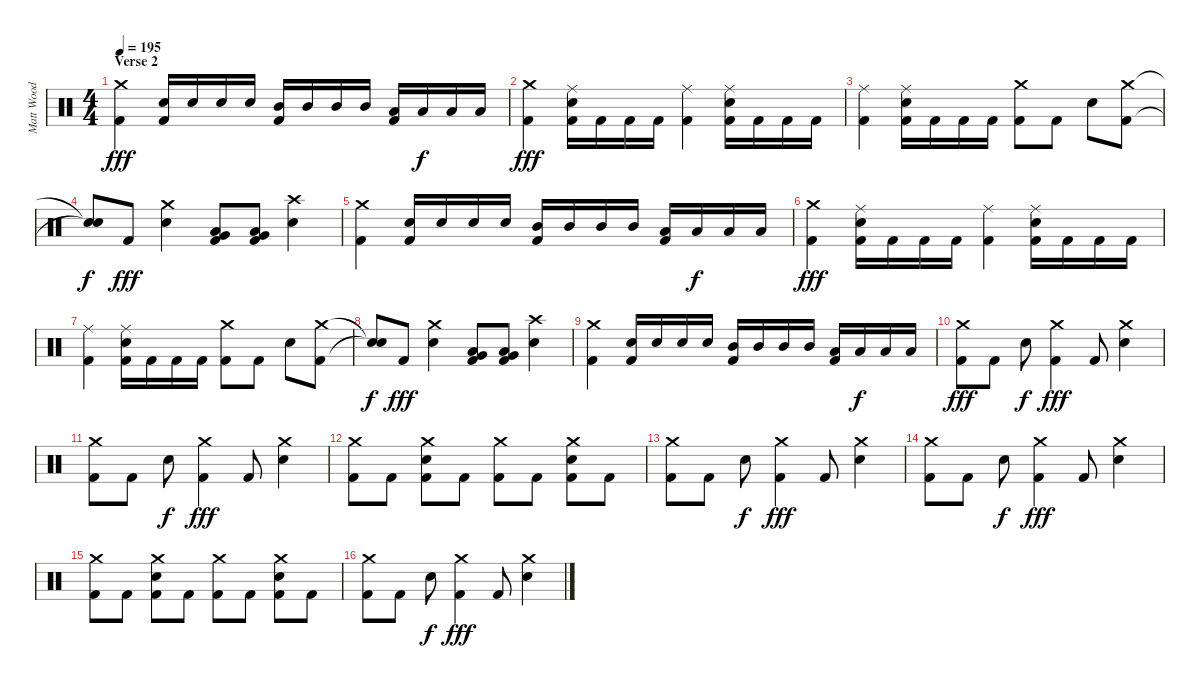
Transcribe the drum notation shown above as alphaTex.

\track ("Matt Wood" "Matt Wood") {instrument percussion}
\staff {score}
\articulation defaults
\ts (4 4)
\section ("" "Verse 2")
\tempo 195
\clef neutral
\ks c
("Crash medium (hit)" "Kick (hit) 2").4{dy fff} ("Snare (hit) 2" "Kick (hit) 2").16 "Snare (hit) 2".16 "Snare (hit) 2".16 "Snare (hit) 2".16 ("Mid Tom (hit)" "Kick (hit) 2").16 "Mid Tom (hit)".16 "Mid Tom (hit)".16 "Mid Tom (hit)".16 ("Low Tom (hit)" "Kick (hit) 2").16 "Low Tom (hit)".16{dy f} "Low Tom (hit)".16 "Low Tom (hit)".16 |
("Crash medium (hit)" "Kick (hit) 2").4{dy fff} ("Ride (middle)" "Snare (hit) 2" "Kick (hit) 2").16 "Kick (hit) 2".16 "Kick (hit) 2".16 "Kick (hit) 2".16 ("Ride (middle)" "Kick (hit) 2").4 ("Ride (middle)" "Snare (hit) 2" "Kick (hit) 2").16 "Kick (hit) 2".16 "Kick (hit) 2".16 "Kick (hit) 2".16 |
("Ride (middle)" "Kick (hit) 2").4 ("Ride (middle)" "Snare (hit) 2" "Kick (hit) 2").16 "Kick (hit) 2".16 "Kick (hit) 2".16 "Kick (hit) 2".16 ("Crash medium (hit)" "Kick (hit) 2").8 "Kick (hit) 2".8 "Snare (hit) 2".8 ("Crash medium (hit)" "Kick (hit) 2").8 |
("Snare (hit)"{t} "Snare (hit)"{t}).8{dy f} "Kick (hit) 2".8{dy fff} ("Crash medium (hit)" "Snare (hit) 2").4 ("Low Tom (hit)" "Very Low Tom (hit)" "Kick (hit) 2").8 ("Low Tom (hit)" "Very Low Tom (hit)" "Kick (hit) 2").8 ("Crash high (hit)" "Snare (hit) 2").4 |
("Crash medium (hit)" "Kick (hit) 2").4 ("Snare (hit) 2" "Kick (hit) 2").16 "Snare (hit) 2".16 "Snare (hit) 2".16 "Snare (hit) 2".16 ("Mid Tom (hit)" "Kick (hit) 2").16 "Mid Tom (hit)".16 "Mid Tom (hit)".16 "Mid Tom (hit)".16 ("Low Tom (hit)" "Kick (hit) 2").16 "Low Tom (hit)".16{dy f} "Low Tom (hit)".16 "Low Tom (hit)".16 |
("Crash medium (hit)" "Kick (hit) 2").4{dy fff} ("Ride (middle)" "Snare (hit) 2" "Kick (hit) 2").16 "Kick (hit) 2".16 "Kick (hit) 2".16 "Kick (hit) 2".16 ("Ride (middle)" "Kick (hit) 2").4 ("Ride (middle)" "Snare (hit) 2" "Kick (hit) 2").16 "Kick (hit) 2".16 "Kick (hit) 2".16 "Kick (hit) 2".16 |
("Ride (middle)" "Kick (hit) 2").4 ("Ride (middle)" "Snare (hit) 2" "Kick (hit) 2").16 "Kick (hit) 2".16 "Kick (hit) 2".16 "Kick (hit) 2".16 ("Crash medium (hit)" "Kick (hit) 2").8 "Kick (hit) 2".8 "Snare (hit) 2".8 ("Crash medium (hit)" "Kick (hit) 2").8 |
("Snare (hit)"{t} "Snare (hit)"{t}).8{dy f} "Kick (hit) 2".8{dy fff} ("Crash medium (hit)" "Snare (hit) 2").4 ("Low Tom (hit)" "Very Low Tom (hit)" "Kick (hit) 2").8 ("Low Tom (hit)" "Very Low Tom (hit)" "Kick (hit) 2").8 ("Crash high (hit)" "Snare (hit) 2").4 |
("Crash medium (hit)" "Kick (hit) 2").4 ("Snare (hit) 2" "Kick (hit) 2").16 "Snare (hit) 2".16 "Snare (hit) 2".16 "Snare (hit) 2".16 ("Mid Tom (hit)" "Kick (hit) 2").16 "Mid Tom (hit)".16 "Mid Tom (hit)".16 "Mid Tom (hit)".16 ("Low Tom (hit)" "Kick (hit) 2").16 "Low Tom (hit)".16{dy f} "Low Tom (hit)".16 "Low Tom (hit)".16 |
("Crash medium (hit)" "Kick (hit) 2").8{dy fff} "Kick (hit) 2".8 "Snare (hit) 2".8{dy f} ("Crash medium (hit)" "Kick (hit) 2").4{dy fff} "Kick (hit) 2".8 ("Crash medium (hit)" "Snare (hit) 2").4 |
("Crash medium (hit)" "Kick (hit) 2").8 "Kick (hit) 2".8 "Snare (hit) 2".8{dy f} ("Crash medium (hit)" "Kick (hit) 2").4{dy fff} "Kick (hit) 2".8 ("Crash medium (hit)" "Snare (hit) 2").4 |
("Crash medium (hit)" "Kick (hit) 2").8 "Kick (hit) 2".8 ("Crash medium (hit)" "Snare (hit) 2" "Kick (hit) 2").8 "Kick (hit) 2".8 ("Crash medium (hit)" "Kick (hit) 2").8 "Kick (hit) 2".8 ("Crash medium (hit)" "Snare (hit) 2" "Kick (hit) 2").8 "Kick (hit) 2".8 |
("Crash medium (hit)" "Kick (hit) 2").8 "Kick (hit) 2".8 "Snare (hit) 2".8{dy f} ("Crash medium (hit)" "Kick (hit) 2").4{dy fff} "Kick (hit) 2".8 ("Crash medium (hit)" "Snare (hit) 2").4 |
("Crash medium (hit)" "Kick (hit) 2").8 "Kick (hit) 2".8 "Snare (hit) 2".8{dy f} ("Crash medium (hit)" "Kick (hit) 2").4{dy fff} "Kick (hit) 2".8 ("Crash medium (hit)" "Snare (hit) 2").4 |
("Crash medium (hit)" "Kick (hit) 2").8 "Kick (hit) 2".8 ("Crash medium (hit)" "Snare (hit) 2" "Kick (hit) 2").8 "Kick (hit) 2".8 ("Crash medium (hit)" "Kick (hit) 2").8 "Kick (hit) 2".8 ("Crash medium (hit)" "Snare (hit) 2" "Kick (hit) 2").8 "Kick (hit) 2".8 |
("Crash medium (hit)" "Kick (hit) 2").8 "Kick (hit) 2".8 "Snare (hit) 2".8{dy f} ("Crash medium (hit)" "Kick (hit) 2").4{dy fff} "Kick (hit) 2".8 ("Crash medium (hit)" "Snare (hit) 2").4
